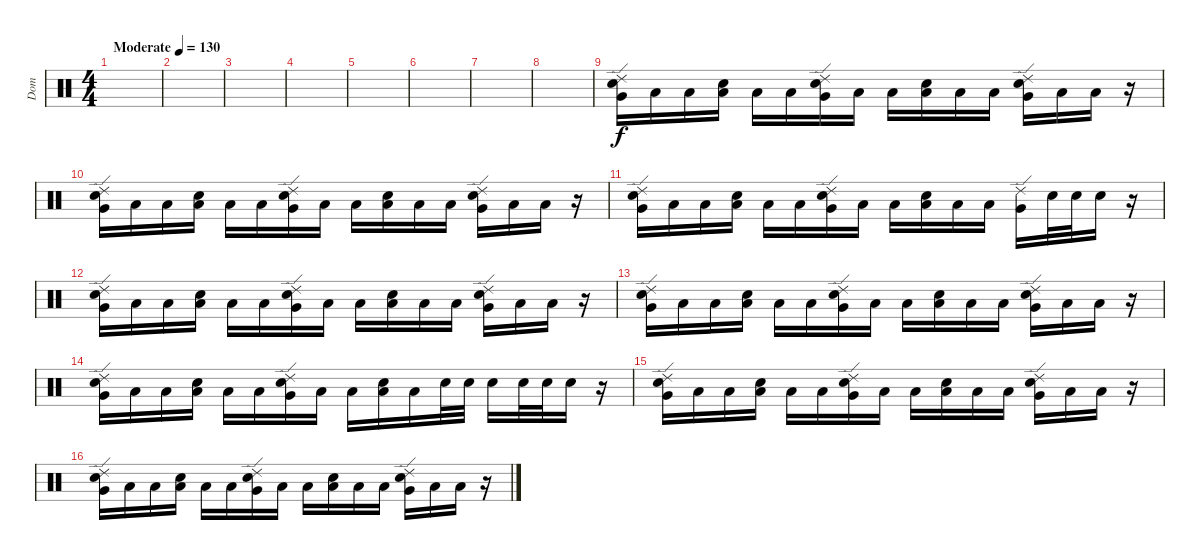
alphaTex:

\track ("Dom" "Dom") {instrument percussion}
\staff {score}
\articulation defaults
\ts (4 4)
\tempo (130 "Moderate")
\clef neutral
\ks c
|
|
|
|
|
|
|
|
("Ride (edge) 2" "Snare (hit) 2" "Very Low Tom (hit)").16 "Low Floor Tom (hit)".16 "Low Floor Tom (hit)".16 ("Snare (hit) 2" "Low Floor Tom (hit)").16 "Low Floor Tom (hit)".16 "Low Floor Tom (hit)".16 ("Ride (edge) 2" "Snare (hit) 2" "Very Low Tom (hit)").16 "Low Floor Tom (hit)".16 "Low Floor Tom (hit)".16 ("Snare (hit) 2" "Low Floor Tom (hit)").16 "Low Floor Tom (hit)".16 "Low Floor Tom (hit)".16 ("Ride (edge) 2" "Snare (hit) 2" "Very Low Tom (hit)").16 "Low Floor Tom (hit)".16 "Low Floor Tom (hit)".16 r.16 |
("Ride (edge) 2" "Snare (hit) 2" "Very Low Tom (hit)").16 "Low Floor Tom (hit)".16 "Low Floor Tom (hit)".16 ("Snare (hit) 2" "Low Floor Tom (hit)").16 "Low Floor Tom (hit)".16 "Low Floor Tom (hit)".16 ("Ride (edge) 2" "Snare (hit) 2" "Very Low Tom (hit)").16 "Low Floor Tom (hit)".16 "Low Floor Tom (hit)".16 ("Snare (hit) 2" "Low Floor Tom (hit)").16 "Low Floor Tom (hit)".16 "Low Floor Tom (hit)".16 ("Ride (edge) 2" "Snare (hit) 2" "Very Low Tom (hit)").16 "Low Floor Tom (hit)".16 "Low Floor Tom (hit)".16 r.16 |
("Ride (edge) 2" "Snare (hit) 2" "Very Low Tom (hit)").16 "Low Floor Tom (hit)".16 "Low Floor Tom (hit)".16 ("Snare (hit) 2" "Low Floor Tom (hit)").16 "Low Floor Tom (hit)".16 "Low Floor Tom (hit)".16 ("Ride (edge) 2" "Snare (hit) 2" "Very Low Tom (hit)").16 "Low Floor Tom (hit)".16 "Low Floor Tom (hit)".16 ("Snare (hit) 2" "Low Floor Tom (hit)").16 "Low Floor Tom (hit)".16 "Low Floor Tom (hit)".16 ("Ride (edge) 2" "Very Low Tom (hit)").16 "Snare (hit) 2".32 "Snare (hit) 2".32 "Snare (hit) 2".16 r.16 |
("Ride (edge) 2" "Snare (hit) 2" "Very Low Tom (hit)").16 "Low Floor Tom (hit)".16 "Low Floor Tom (hit)".16 ("Snare (hit) 2" "Low Floor Tom (hit)").16 "Low Floor Tom (hit)".16 "Low Floor Tom (hit)".16 ("Ride (edge) 2" "Snare (hit) 2" "Very Low Tom (hit)").16 "Low Floor Tom (hit)".16 "Low Floor Tom (hit)".16 ("Snare (hit) 2" "Low Floor Tom (hit)").16 "Low Floor Tom (hit)".16 "Low Floor Tom (hit)".16 ("Ride (edge) 2" "Snare (hit) 2" "Very Low Tom (hit)").16 "Low Floor Tom (hit)".16 "Low Floor Tom (hit)".16 r.16 |
("Ride (edge) 2" "Snare (hit) 2" "Very Low Tom (hit)").16 "Low Floor Tom (hit)".16 "Low Floor Tom (hit)".16 ("Snare (hit) 2" "Low Floor Tom (hit)").16 "Low Floor Tom (hit)".16 "Low Floor Tom (hit)".16 ("Ride (edge) 2" "Snare (hit) 2" "Very Low Tom (hit)").16 "Low Floor Tom (hit)".16 "Low Floor Tom (hit)".16 ("Snare (hit) 2" "Low Floor Tom (hit)").16 "Low Floor Tom (hit)".16 "Low Floor Tom (hit)".16 ("Ride (edge) 2" "Snare (hit) 2" "Very Low Tom (hit)").16 "Low Floor Tom (hit)".16 "Low Floor Tom (hit)".16 r.16 |
("Ride (edge) 2" "Snare (hit) 2" "Very Low Tom (hit)").16 "Low Floor Tom (hit)".16 "Low Floor Tom (hit)".16 ("Snare (hit) 2" "Low Floor Tom (hit)").16 "Low Floor Tom (hit)".16 "Low Floor Tom (hit)".16 ("Ride (edge) 2" "Snare (hit) 2" "Very Low Tom (hit)").16 "Low Floor Tom (hit)".16 "Low Floor Tom (hit)".16 ("Snare (hit) 2" "Low Floor Tom (hit)").16 "Low Floor Tom (hit)".16 "Snare (hit) 2".32 "Snare (hit) 2".32 "Snare (hit) 2".16 "Snare (hit) 2".32 "Snare (hit) 2".32 "Snare (hit) 2".16 r.16 |
("Ride (edge) 2" "Snare (hit) 2" "Very Low Tom (hit)").16 "Low Floor Tom (hit)".16 "Low Floor Tom (hit)".16 ("Snare (hit) 2" "Low Floor Tom (hit)").16 "Low Floor Tom (hit)".16 "Low Floor Tom (hit)".16 ("Ride (edge) 2" "Snare (hit) 2" "Very Low Tom (hit)").16 "Low Floor Tom (hit)".16 "Low Floor Tom (hit)".16 ("Snare (hit) 2" "Low Floor Tom (hit)").16 "Low Floor Tom (hit)".16 "Low Floor Tom (hit)".16 ("Ride (edge) 2" "Snare (hit) 2" "Very Low Tom (hit)").16 "Low Floor Tom (hit)".16 "Low Floor Tom (hit)".16 r.16 |
("Ride (edge) 2" "Snare (hit) 2" "Very Low Tom (hit)").16 "Low Floor Tom (hit)".16 "Low Floor Tom (hit)".16 ("Snare (hit) 2" "Low Floor Tom (hit)").16 "Low Floor Tom (hit)".16 "Low Floor Tom (hit)".16 ("Ride (edge) 2" "Snare (hit) 2" "Very Low Tom (hit)").16 "Low Floor Tom (hit)".16 "Low Floor Tom (hit)".16 ("Snare (hit) 2" "Low Floor Tom (hit)").16 "Low Floor Tom (hit)".16 "Low Floor Tom (hit)".16 ("Ride (edge) 2" "Snare (hit) 2" "Very Low Tom (hit)").16 "Low Floor Tom (hit)".16 "Low Floor Tom (hit)".16 r.16
